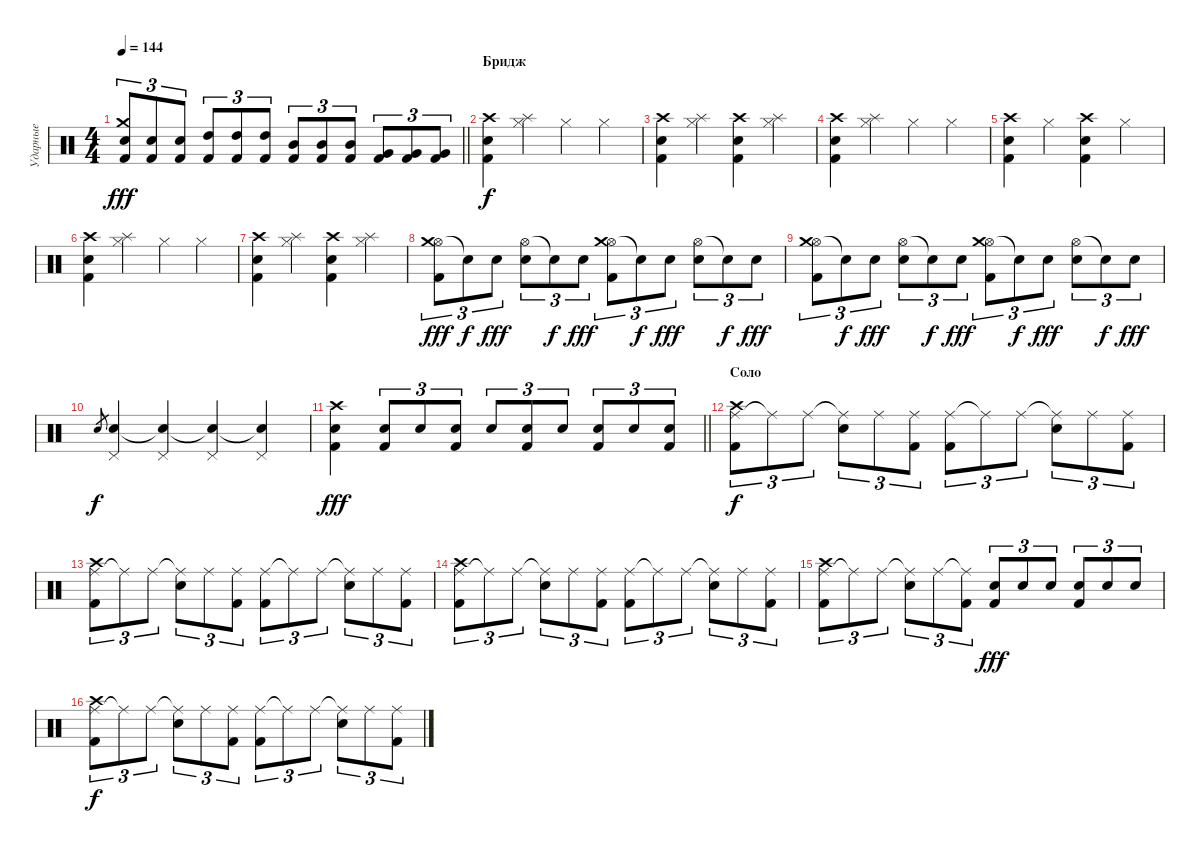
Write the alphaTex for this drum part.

\track ("Ударные" "Ударные") {instrument percussion}
\staff {score}
\articulation defaults
\ts (4 4)
\tempo 144
\clef neutral
\barLineRight lightlight
\ks c
("Snare (hit) 2" "Crash medium (hit)" "Kick (hit) 2").8{tu (3 2) dy fff} ("Snare (hit) 2" "Kick (hit) 2").8{tu (3 2)} ("Snare (hit) 2" "Kick (hit) 2").8{tu (3 2)} ("High Tom (hit)" "Kick (hit) 2").8{tu (3 2)} ("High Tom (hit)" "Kick (hit) 2").8{tu (3 2)} ("High Tom (hit)" "Kick (hit) 2").8{tu (3 2)} ("Mid Tom (hit)" "Kick (hit) 2").8{tu (3 2)} ("Mid Tom (hit)" "Kick (hit) 2").8{tu (3 2)} ("Mid Tom (hit)" "Kick (hit) 2").8{tu (3 2)} ("Very Low Tom (hit)" "Kick (hit) 2").8{tu (3 2)} ("Very Low Tom (hit)" "Kick (hit) 2").8{tu (3 2)} ("Very Low Tom (hit)" "Kick (hit) 2").8{tu (3 2)} |
\section ("" "Бридж")
("Crash high (hit)" "Snare (hit) 2" "Kick (hit) 2").4{dy f} ("Splash (hit)" "Hi-Hat (closed)").4 "Hi-Hat (closed)".4 "Hi-Hat (closed)".4 |
("Crash high (hit)" "Snare (hit) 2" "Kick (hit) 2").4 ("Splash (hit)" "Hi-Hat (closed)").4 ("Crash high (hit)" "Snare (hit) 2" "Kick (hit) 2").4 ("Splash (hit)" "Hi-Hat (closed)").4 |
("Crash high (hit)" "Snare (hit) 2" "Kick (hit) 2").4 ("Splash (hit)" "Hi-Hat (closed)").4 "Hi-Hat (closed)".4 "Hi-Hat (closed)".4 |
("Crash high (hit)" "Snare (hit) 2" "Kick (hit) 2").4 "Hi-Hat (closed)".4 ("Crash high (hit)" "Snare (hit) 2" "Kick (hit) 2").4 "Hi-Hat (closed)".4 |
("Crash high (hit)" "Snare (hit) 2" "Kick (hit) 2").4 ("Splash (hit)" "Hi-Hat (closed)").4 "Hi-Hat (closed)".4 "Hi-Hat (closed)".4 |
("Crash high (hit)" "Snare (hit) 2" "Kick (hit) 2").4 ("Splash (hit)" "Hi-Hat (closed)").4 ("Crash high (hit)" "Snare (hit) 2" "Kick (hit) 2").4 ("Splash (hit)" "Hi-Hat (closed)").4 |
("Hi-Hat (open)" "Kick (hit) 2" "Crash medium (hit)").8{tu (3 2) dy fff} "Snare (hit)"{t}.8{tu (3 2) dy f} "Snare (hit) 2".8{tu (3 2) dy fff} ("Hi-Hat (open)" "Snare (hit) 2").8{tu (3 2)} "Snare (hit)"{t}.8{tu (3 2) dy f} "Snare (hit) 2".8{tu (3 2) dy fff} ("Hi-Hat (open)" "Kick (hit) 2" "Crash medium (hit)").8{tu (3 2)} "Snare (hit)"{t}.8{tu (3 2) dy f} "Snare (hit) 2".8{tu (3 2) dy fff} ("Hi-Hat (open)" "Snare (hit) 2").8{tu (3 2)} "Snare (hit)"{t}.8{tu (3 2) dy f} "Snare (hit) 2".8{tu (3 2) dy fff} |
("Hi-Hat (open)" "Kick (hit) 2" "Crash medium (hit)").8{tu (3 2)} "Snare (hit)"{t}.8{tu (3 2) dy f} "Snare (hit) 2".8{tu (3 2) dy fff} ("Hi-Hat (open)" "Snare (hit) 2").8{tu (3 2)} "Snare (hit)"{t}.8{tu (3 2) dy f} "Snare (hit) 2".8{tu (3 2) dy fff} ("Hi-Hat (open)" "Kick (hit) 2" "Crash medium (hit)").8{tu (3 2)} "Snare (hit)"{t}.8{tu (3 2) dy f} "Snare (hit) 2".8{tu (3 2) dy fff} ("Hi-Hat (open)" "Snare (hit) 2").8{tu (3 2)} "Snare (hit)"{t}.8{tu (3 2) dy f} "Snare (hit) 2".8{tu (3 2) dy fff} |
"Snare (hit) 2".8{gr dy f} ("Snare (hit) 2" "Pedal Hi-Hat (hit)").4 ("Snare (hit)"{t} "Pedal Hi-Hat (hit)").4 ("Snare (hit)"{t} "Pedal Hi-Hat (hit)").4 ("Snare (hit)"{t} "Pedal Hi-Hat (hit)").4 |
\barLineRight lightlight
("Crash high (hit)" "Snare (hit) 2" "Kick (hit) 2").4{dy fff} ("Snare (hit) 2" "Kick (hit) 2").8{tu (3 2)} "Snare (hit) 2".8{tu (3 2)} ("Snare (hit) 2" "Kick (hit) 2").8{tu (3 2)} "Snare (hit) 2".8{tu (3 2)} ("Snare (hit) 2" "Kick (hit) 2").8{tu (3 2)} "Snare (hit) 2".8{tu (3 2)} ("Snare (hit) 2" "Kick (hit) 2").8{tu (3 2)} "Snare (hit) 2".8{tu (3 2)} ("Snare (hit) 2" "Kick (hit) 2").8{tu (3 2)} |
\section ("" "Соло")
("Ride (middle)" "Kick (hit) 2" "Crash high (hit)").8{tu (3 2) dy f} "Ride (middle)"{t}.8{tu (3 2)} "Ride (middle)".8{tu (3 2)} ("Ride (middle)"{t} "Snare (hit) 2").8{tu (3 2)} "Ride (middle)".8{tu (3 2)} ("Ride (middle)" "Kick (hit) 2").8{tu (3 2)} ("Ride (middle)" "Kick (hit) 2").8{tu (3 2)} "Ride (middle)"{t}.8{tu (3 2)} "Ride (middle)".8{tu (3 2)} ("Ride (middle)"{t} "Snare (hit) 2").8{tu (3 2)} "Ride (middle)".8{tu (3 2)} ("Ride (middle)" "Kick (hit) 2").8{tu (3 2)} |
("Ride (middle)" "Kick (hit) 2" "Crash high (hit)").8{tu (3 2)} "Ride (middle)"{t}.8{tu (3 2)} "Ride (middle)".8{tu (3 2)} ("Ride (middle)"{t} "Snare (hit) 2").8{tu (3 2)} "Ride (middle)".8{tu (3 2)} ("Ride (middle)" "Kick (hit) 2").8{tu (3 2)} ("Ride (middle)" "Kick (hit) 2").8{tu (3 2)} "Ride (middle)"{t}.8{tu (3 2)} "Ride (middle)".8{tu (3 2)} ("Ride (middle)"{t} "Snare (hit) 2").8{tu (3 2)} "Ride (middle)".8{tu (3 2)} ("Ride (middle)" "Kick (hit) 2").8{tu (3 2)} |
("Ride (middle)" "Kick (hit) 2" "Crash high (hit)").8{tu (3 2)} "Ride (middle)"{t}.8{tu (3 2)} "Ride (middle)".8{tu (3 2)} ("Ride (middle)"{t} "Snare (hit) 2").8{tu (3 2)} "Ride (middle)".8{tu (3 2)} ("Ride (middle)" "Kick (hit) 2").8{tu (3 2)} ("Ride (middle)" "Kick (hit) 2").8{tu (3 2)} "Ride (middle)"{t}.8{tu (3 2)} "Ride (middle)".8{tu (3 2)} ("Ride (middle)"{t} "Snare (hit) 2").8{tu (3 2)} "Ride (middle)".8{tu (3 2)} ("Ride (middle)" "Kick (hit) 2").8{tu (3 2)} |
("Ride (middle)" "Kick (hit) 2" "Crash high (hit)").8{tu (3 2)} "Ride (middle)"{t}.8{tu (3 2)} "Ride (middle)".8{tu (3 2)} ("Ride (middle)"{t} "Snare (hit) 2").8{tu (3 2)} "Ride (middle)".8{tu (3 2)} ("Ride (middle)"{t} "Kick (hit) 2").8{tu (3 2)} ("Snare (hit) 2" "Kick (hit) 2").8{tu (3 2) dy fff} "Snare (hit) 2".8{tu (3 2)} "Snare (hit) 2".8{tu (3 2)} ("Snare (hit) 2" "Kick (hit) 2").8{tu (3 2)} "Snare (hit) 2".8{tu (3 2)} "Snare (hit) 2".8{tu (3 2)} |
("Ride (middle)" "Kick (hit) 2" "Crash high (hit)").8{tu (3 2) dy f} "Ride (middle)"{t}.8{tu (3 2)} "Ride (middle)".8{tu (3 2)} ("Ride (middle)"{t} "Snare (hit) 2").8{tu (3 2)} "Ride (middle)".8{tu (3 2)} ("Ride (middle)" "Kick (hit) 2").8{tu (3 2)} ("Ride (middle)" "Kick (hit) 2").8{tu (3 2)} "Ride (middle)"{t}.8{tu (3 2)} "Ride (middle)".8{tu (3 2)} ("Ride (middle)"{t} "Snare (hit) 2").8{tu (3 2)} "Ride (middle)".8{tu (3 2)} ("Ride (middle)" "Kick (hit) 2").8{tu (3 2)}
